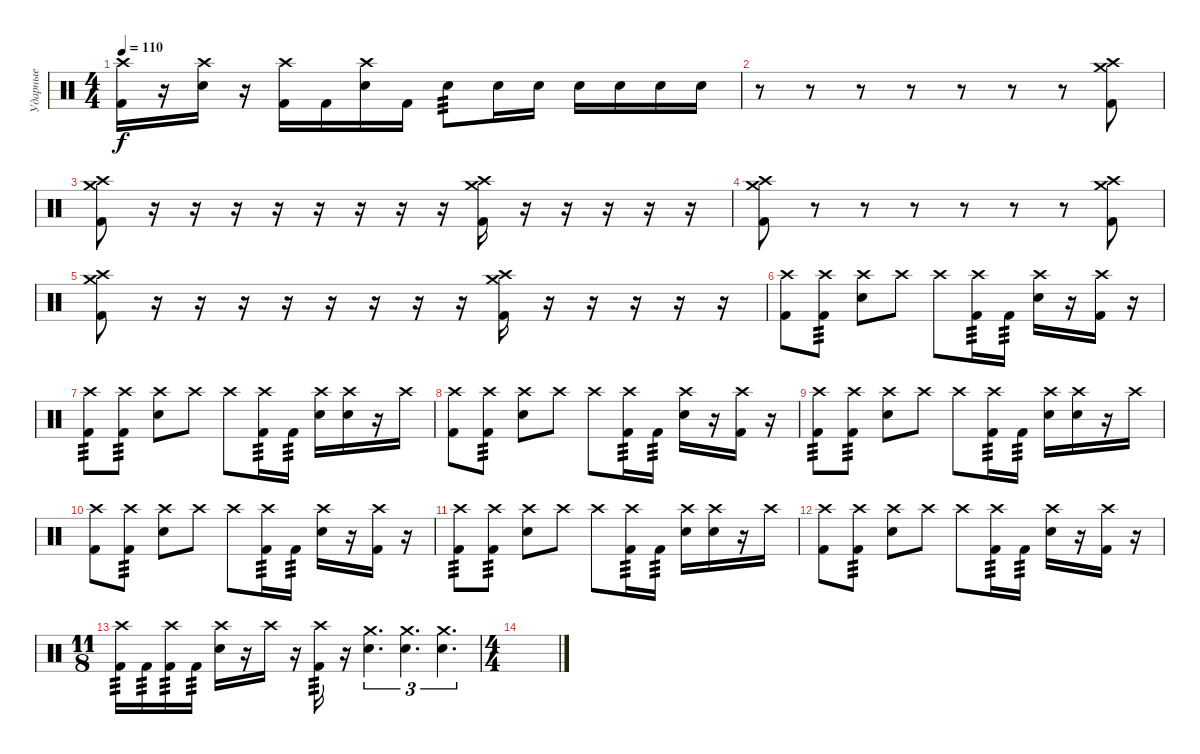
\track ("Ударные" "Ударные") {instrument percussion}
\staff {score}
\articulation defaults
\ts (4 4)
\tempo 110
\clef neutral
\ks c
("Crash high (hit)" "Kick (hit) 2").16{dy f} r.16 ("Crash high (hit)" "Snare (hit) 2").16 r.16 ("Crash high (hit)" "Kick (hit) 2").16 "Kick (hit) 2".16 ("Crash high (hit)" "Snare (hit) 2").16 "Kick (hit) 2".16 "Snare (hit) 2".8{tp 3} "Snare (hit) 2".16 "Snare (hit) 2".16 "Snare (hit) 2".16 "Snare (hit) 2".16 "Snare (hit) 2".16 "Snare (hit) 2".16 |
r.8 r.8 r.8 r.8 r.8 r.8 r.8 ("Crash medium (hit)" "Crash high (hit)" "Kick (hit) 2").8 |
("Crash medium (hit)" "Crash high (hit)" "Kick (hit) 2").8 r.16 r.16 r.16 r.16 r.16 r.16 r.16 r.16 ("Crash medium (hit)" "Crash high (hit)" "Kick (hit) 2").16 r.16 r.16 r.16 r.16 r.16 |
("Crash medium (hit)" "Crash high (hit)" "Kick (hit) 2").8 r.8 r.8 r.8 r.8 r.8 r.8 ("Crash medium (hit)" "Crash high (hit)" "Kick (hit) 2").8 |
("Crash medium (hit)" "Crash high (hit)" "Kick (hit) 2").8 r.16 r.16 r.16 r.16 r.16 r.16 r.16 r.16 ("Crash medium (hit)" "Crash high (hit)" "Kick (hit) 2").16 r.16 r.16 r.16 r.16 r.16 |
("Crash high (hit)" "Kick (hit) 2").8 ("Crash high (hit)" "Kick (hit) 2").8{tp 3} ("Crash high (hit)" "Snare (hit) 2").8 "Crash high (hit)".8 "Crash high (hit)".8 ("Crash high (hit)" "Kick (hit) 2").16{tp 3} "Kick (hit) 2".16{tp 3} ("Crash high (hit)" "Snare (hit) 2").16 r.16 ("Crash high (hit)" "Kick (hit) 2").16 r.16 |
("Crash high (hit)" "Kick (hit) 2").8{tp 3} ("Crash high (hit)" "Kick (hit) 2").8{tp 3} ("Crash high (hit)" "Snare (hit) 2").8 "Crash high (hit)".8 "Crash high (hit)".8 ("Crash high (hit)" "Kick (hit) 2").16{tp 3} "Kick (hit) 2".16{tp 3} ("Crash high (hit)" "Snare (hit) 2").16 ("Crash high (hit)" "Snare (hit) 2").16 r.16 "Crash high (hit)".16 |
("Crash high (hit)" "Kick (hit) 2").8 ("Crash high (hit)" "Kick (hit) 2").8{tp 3} ("Crash high (hit)" "Snare (hit) 2").8 "Crash high (hit)".8 "Crash high (hit)".8 ("Crash high (hit)" "Kick (hit) 2").16{tp 3} "Kick (hit) 2".16{tp 3} ("Crash high (hit)" "Snare (hit) 2").16 r.16 ("Crash high (hit)" "Kick (hit) 2").16 r.16 |
("Crash high (hit)" "Kick (hit) 2").8{tp 3} ("Crash high (hit)" "Kick (hit) 2").8{tp 3} ("Crash high (hit)" "Snare (hit) 2").8 "Crash high (hit)".8 "Crash high (hit)".8 ("Crash high (hit)" "Kick (hit) 2").16{tp 3} "Kick (hit) 2".16{tp 3} ("Crash high (hit)" "Snare (hit) 2").16 ("Crash high (hit)" "Snare (hit) 2").16 r.16 "Crash high (hit)".16 |
("Crash high (hit)" "Kick (hit) 2").8 ("Crash high (hit)" "Kick (hit) 2").8{tp 3} ("Crash high (hit)" "Snare (hit) 2").8 "Crash high (hit)".8 "Crash high (hit)".8 ("Crash high (hit)" "Kick (hit) 2").16{tp 3} "Kick (hit) 2".16{tp 3} ("Crash high (hit)" "Snare (hit) 2").16 r.16 ("Crash high (hit)" "Kick (hit) 2").16 r.16 |
("Crash high (hit)" "Kick (hit) 2").8{tp 3} ("Crash high (hit)" "Kick (hit) 2").8{tp 3} ("Crash high (hit)" "Snare (hit) 2").8 "Crash high (hit)".8 "Crash high (hit)".8 ("Crash high (hit)" "Kick (hit) 2").16{tp 3} "Kick (hit) 2".16{tp 3} ("Crash high (hit)" "Snare (hit) 2").16 ("Crash high (hit)" "Snare (hit) 2").16 r.16 "Crash high (hit)".16 |
("Crash high (hit)" "Kick (hit) 2").8 ("Crash high (hit)" "Kick (hit) 2").8{tp 3} ("Crash high (hit)" "Snare (hit) 2").8 "Crash high (hit)".8 "Crash high (hit)".8 ("Crash high (hit)" "Kick (hit) 2").16{tp 3} "Kick (hit) 2".16{tp 3} ("Crash high (hit)" "Snare (hit) 2").16 r.16 ("Crash high (hit)" "Kick (hit) 2").16 r.16 |
\ts (11 8)
("Crash high (hit)" "Kick (hit) 2").16{tp 3} "Kick (hit) 2".16{tp 3} ("Crash high (hit)" "Kick (hit) 2").16{tp 3} "Kick (hit) 2".16{tp 3} ("Crash high (hit)" "Snare (hit) 2").16 r.16 "Crash high (hit)".16 r.16 ("Crash high (hit)" "Kick (hit) 2").16{tp 3} r.16 ("Crash medium (hit)" "Snare (hit) 2").4{d tu (3 2)} ("Crash medium (hit)" "Snare (hit) 2").4{d tu (3 2)} ("Crash medium (hit)" "Snare (hit) 2").4{d tu (3 2)} |
\ts (4 4)
